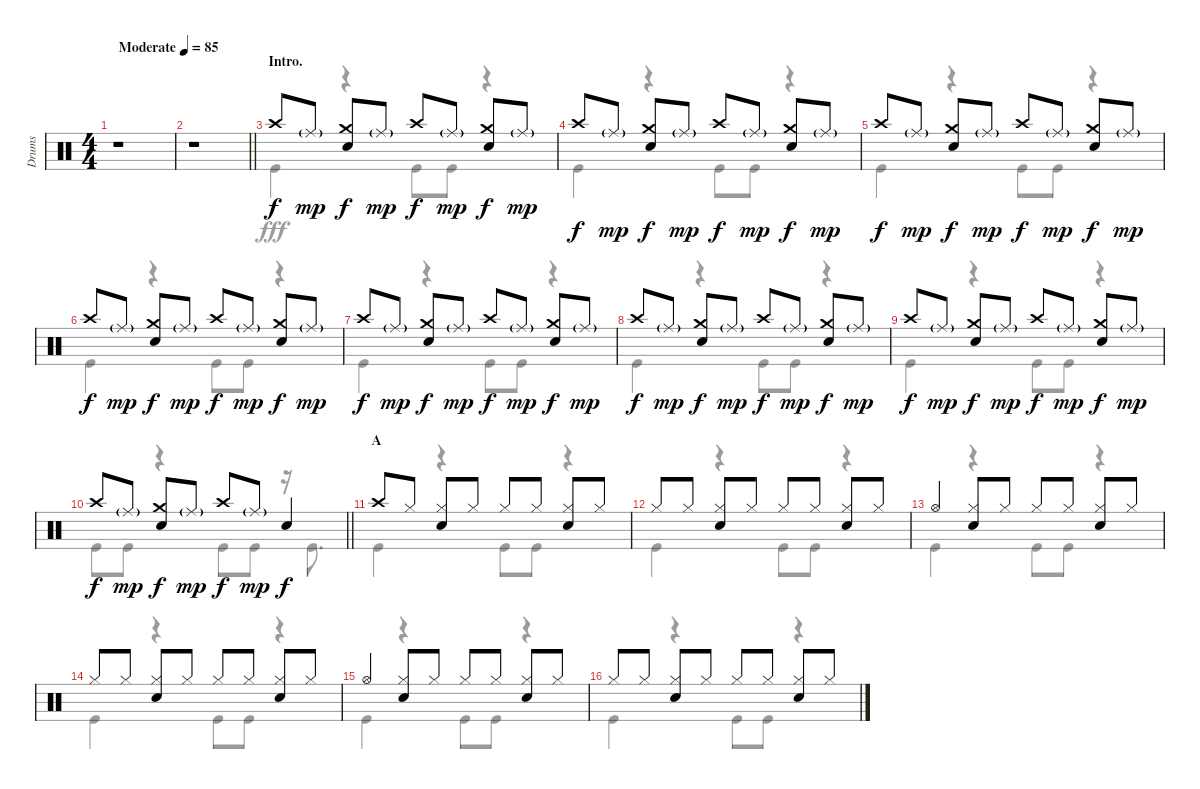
\track ("Drums" "Drums") {instrument percussion}
\staff {score}
\articulation defaults
\voice
\ts (4 4)
\tempo (85 "Moderate")
\clef neutral
\ks c
r.1{dy f} |
\barLineRight lightlight
r.1 |
\section ("" "Intro.")
"Crash high (hit)".8 "Ride (middle)"{g}.8{dy mp} ("Crash medium (hit)" "Snare (hit) 2").8{dy f} "Ride (middle)"{g}.8{dy mp} "Crash high (hit)".8{dy f} "Ride (middle)"{g}.8{dy mp} ("Crash medium (hit)" "Snare (hit) 2").8{dy f} "Ride (middle)"{g}.8{dy mp} |
"Crash high (hit)".8{dy f} "Ride (middle)"{g}.8{dy mp} ("Crash medium (hit)" "Snare (hit) 2").8{dy f} "Ride (middle)"{g}.8{dy mp} "Crash high (hit)".8{dy f} "Ride (middle)"{g}.8{dy mp} ("Crash medium (hit)" "Snare (hit) 2").8{dy f} "Ride (middle)"{g}.8{dy mp} |
"Crash high (hit)".8{dy f} "Ride (middle)"{g}.8{dy mp} ("Crash medium (hit)" "Snare (hit) 2").8{dy f} "Ride (middle)"{g}.8{dy mp} "Crash high (hit)".8{dy f} "Ride (middle)"{g}.8{dy mp} ("Crash medium (hit)" "Snare (hit) 2").8{dy f} "Ride (middle)"{g}.8{dy mp} |
"Crash high (hit)".8{dy f} "Ride (middle)"{g}.8{dy mp} ("Crash medium (hit)" "Snare (hit) 2").8{dy f} "Ride (middle)"{g}.8{dy mp} "Crash high (hit)".8{dy f} "Ride (middle)"{g}.8{dy mp} ("Crash medium (hit)" "Snare (hit) 2").8{dy f} "Ride (middle)"{g}.8{dy mp} |
"Crash high (hit)".8{dy f} "Ride (middle)"{g}.8{dy mp} ("Crash medium (hit)" "Snare (hit) 2").8{dy f} "Ride (middle)"{g}.8{dy mp} "Crash high (hit)".8{dy f} "Ride (middle)"{g}.8{dy mp} ("Crash medium (hit)" "Snare (hit) 2").8{dy f} "Ride (middle)"{g}.8{dy mp} |
"Crash high (hit)".8{dy f} "Ride (middle)"{g}.8{dy mp} ("Crash medium (hit)" "Snare (hit) 2").8{dy f} "Ride (middle)"{g}.8{dy mp} "Crash high (hit)".8{dy f} "Ride (middle)"{g}.8{dy mp} ("Crash medium (hit)" "Snare (hit) 2").8{dy f} "Ride (middle)"{g}.8{dy mp} |
"Crash high (hit)".8{dy f} "Ride (middle)"{g}.8{dy mp} ("Crash medium (hit)" "Snare (hit) 2").8{dy f} "Ride (middle)"{g}.8{dy mp} "Crash high (hit)".8{dy f} "Ride (middle)"{g}.8{dy mp} ("Crash medium (hit)" "Snare (hit) 2").8{dy f} "Ride (middle)"{g}.8{dy mp} |
\barLineRight lightlight "Crash high (hit)".8{dy f} "Ride (middle)"{g}.8{dy mp}
("Crash medium (hit)" "Snare (hit) 2").8{dy f} "Ride (middle)"{g}.8{dy mp} "Crash high (hit)".8{dy f} "Ride (middle)"{g}.8{dy mp} "Snare (hit) 2".4{dy f} |
\section ("" "A")
"Crash high (hit)".8 "Hi-Hat (closed)".8 ("Hi-Hat (closed)" "Snare (hit) 2").8 "Hi-Hat (closed)".8 "Hi-Hat (closed)".8 "Hi-Hat (closed)".8 ("Hi-Hat (closed)" "Snare (hit) 2").8 "Hi-Hat (closed)".8 |
"Hi-Hat (closed)".8 "Hi-Hat (closed)".8 ("Hi-Hat (closed)" "Snare (hit) 2").8 "Hi-Hat (closed)".8 "Hi-Hat (closed)".8 "Hi-Hat (closed)".8 ("Hi-Hat (closed)" "Snare (hit) 2").8 "Hi-Hat (closed)".8 |
"Hi-Hat (open)".4 ("Hi-Hat (closed)" "Snare (hit) 2").8 "Hi-Hat (closed)".8 "Hi-Hat (closed)".8 "Hi-Hat (closed)".8 ("Hi-Hat (closed)" "Snare (hit) 2").8 "Hi-Hat (closed)".8 |
"Hi-Hat (closed)".8 "Hi-Hat (closed)".8 ("Hi-Hat (closed)" "Snare (hit) 2").8 "Hi-Hat (closed)".8 "Hi-Hat (closed)".8 "Hi-Hat (closed)".8 ("Hi-Hat (closed)" "Snare (hit) 2").8 "Hi-Hat (closed)".8 |
"Hi-Hat (open)".4 ("Hi-Hat (closed)" "Snare (hit) 2").8 "Hi-Hat (closed)".8 "Hi-Hat (closed)".8 "Hi-Hat (closed)".8 ("Hi-Hat (closed)" "Snare (hit) 2").8 "Hi-Hat (closed)".8 |
"Hi-Hat (closed)".8 "Hi-Hat (closed)".8 ("Hi-Hat (closed)" "Snare (hit) 2").8 "Hi-Hat (closed)".8 "Hi-Hat (closed)".8 "Hi-Hat (closed)".8 ("Hi-Hat (closed)" "Snare (hit) 2").8 "Hi-Hat (closed)".8
\voice
\clef neutral
\ottava regular
\simile none
\ks c
r.1{dy fff} |
\barLineRight lightlight
r.1 |
"Kick (hit)".4 r.4 "Kick (hit)".8 "Kick (hit)".8 r.4 |
"Kick (hit)".4 r.4 "Kick (hit)".8 "Kick (hit)".8 r.4 |
"Kick (hit)".4 r.4 "Kick (hit)".8 "Kick (hit)".8 r.4 |
"Kick (hit)".4 r.4 "Kick (hit)".8 "Kick (hit)".8 r.4 |
"Kick (hit)".4 r.4 "Kick (hit)".8 "Kick (hit)".8 r.4 |
"Kick (hit)".4 r.4 "Kick (hit)".8 "Kick (hit)".8 r.4 |
"Kick (hit)".4 r.4 "Kick (hit)".8 "Kick (hit)".8 r.4 |
\barLineRight lightlight "Kick (hit)".8 "Kick (hit)".8
r.4 "Kick (hit)".8 "Kick (hit)".8 r.16 "Kick (hit)".8{d} |
"Kick (hit)".4 r.4 "Kick (hit)".8 "Kick (hit)".8 r.4 |
"Kick (hit)".4 r.4 "Kick (hit)".8 "Kick (hit)".8 r.4 |
"Kick (hit)".4 r.4 "Kick (hit)".8 "Kick (hit)".8 r.4 |
"Kick (hit)".4 r.4 "Kick (hit)".8 "Kick (hit)".8 r.4 |
"Kick (hit)".4 r.4 "Kick (hit)".8 "Kick (hit)".8 r.4 |
"Kick (hit)".4 r.4 "Kick (hit)".8 "Kick (hit)".8 r.4
